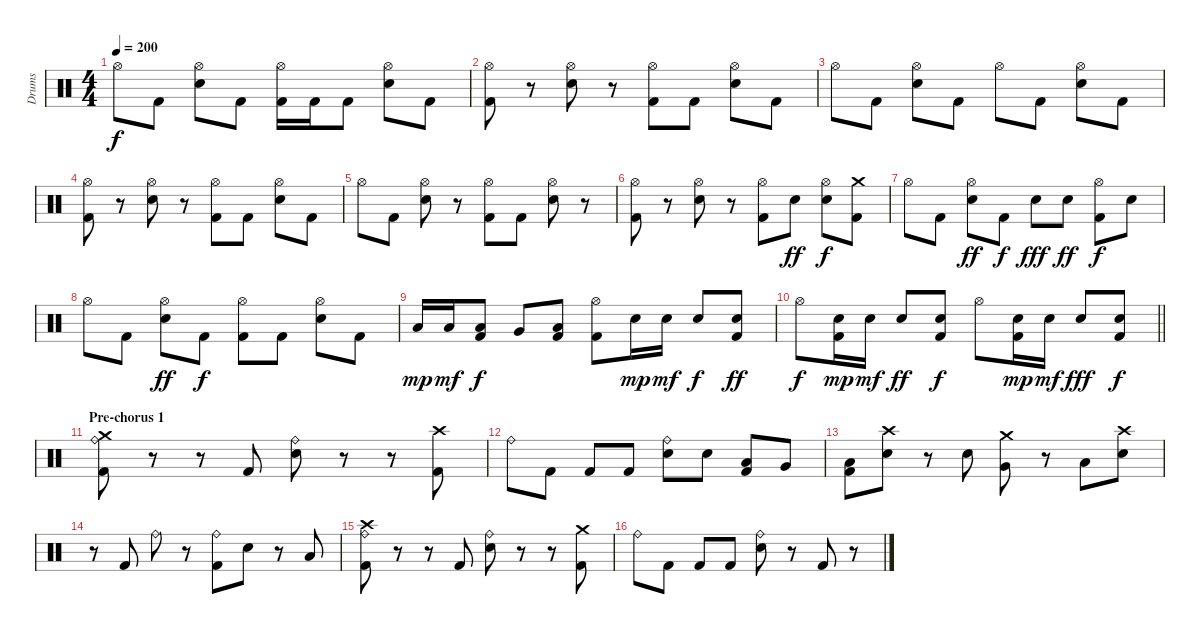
\track ("Drums" "Drums") {instrument percussion}
\staff {score}
\articulation defaults
\ts (4 4)
\tempo 200
\clef neutral
\ks c "Hi-Hat (open)".8{dy f} "Kick (hit) 2".8
("Electric Snare (hit)" "Hi-Hat (open)").8 "Kick (hit) 2".8 ("Kick (hit) 2" "Hi-Hat (open)").16 "Kick (hit) 2".16 "Kick (hit) 2".8 ("Electric Snare (hit)" "Hi-Hat (open)").8 "Kick (hit) 2".8 |
("Kick (hit) 2" "Hi-Hat (open)").8 r.8 ("Electric Snare (hit)" "Hi-Hat (open)").8 r.8 ("Kick (hit) 2" "Hi-Hat (open)").8 "Kick (hit) 2".8 ("Electric Snare (hit)" "Hi-Hat (open)").8 "Kick (hit) 2".8 |
"Hi-Hat (open)".8 "Kick (hit) 2".8 ("Electric Snare (hit)" "Hi-Hat (open)").8 "Kick (hit) 2".8 "Hi-Hat (open)".8 "Kick (hit) 2".8 ("Electric Snare (hit)" "Hi-Hat (open)").8 "Kick (hit) 2".8 |
("Kick (hit) 2" "Hi-Hat (open)").8 r.8 ("Electric Snare (hit)" "Hi-Hat (open)").8 r.8 ("Kick (hit) 2" "Hi-Hat (open)").8 "Kick (hit) 2".8 ("Electric Snare (hit)" "Hi-Hat (open)").8 "Kick (hit) 2".8 |
"Hi-Hat (open)".8 "Kick (hit) 2".8 ("Electric Snare (hit)" "Hi-Hat (open)").8 r.8 ("Kick (hit) 2" "Hi-Hat (open)").8 "Kick (hit) 2".8 ("Electric Snare (hit)" "Hi-Hat (open)").8 r.8 |
("Kick (hit) 2" "Hi-Hat (open)").8 r.8 ("Electric Snare (hit)" "Hi-Hat (open)").8 r.8 ("Kick (hit) 2" "Hi-Hat (open)").8 "Electric Snare (hit)".8{dy ff} ("Electric Snare (hit)" "Hi-Hat (open)").8{dy f} ("Kick (hit) 2" "Crash medium (hit)").8 |
"Hi-Hat (open)".8 "Kick (hit) 2".8 ("Electric Snare (hit)" "Hi-Hat (open)").8{dy ff} "Kick (hit) 2".8{dy f} "Electric Snare (hit)".8{dy fff} "Electric Snare (hit)".8{dy ff} ("Kick (hit) 2" "Hi-Hat (open)").8{dy f} "Electric Snare (hit)".8 |
"Hi-Hat (open)".8 "Kick (hit) 2".8 ("Electric Snare (hit)" "Hi-Hat (open)").8{dy ff} "Kick (hit) 2".8{dy f} ("Kick (hit) 2" "Hi-Hat (open)").8 "Kick (hit) 2".8 ("Electric Snare (hit)" "Hi-Hat (open)").8 "Kick (hit) 2".8 |
"Low Tom (hit)".16{dy mp} "Low Tom (hit)".16{dy mf} ("Kick (hit) 2" "Low Tom (hit)").8{dy f} "Very Low Tom (hit)".8 ("Kick (hit) 2" "Low Tom (hit)").8 ("Kick (hit) 2" "Hi-Hat (open)").8 "Electric Snare (hit)".16{dy mp} "Electric Snare (hit)".16{dy mf} "Electric Snare (hit)".8{dy f} ("Kick (hit) 2" "Electric Snare (hit)").8{dy ff} |
\barLineRight lightlight "Hi-Hat (open)".8{dy f}
("Kick (hit) 2" "Electric Snare (hit)").16{dy mp} "Electric Snare (hit)".16{dy mf} "Electric Snare (hit)".8{dy ff} ("Kick (hit) 2" "Electric Snare (hit)").8{dy f} "Hi-Hat (open)".8 ("Kick (hit) 2" "Electric Snare (hit)").16{dy mp} "Electric Snare (hit)".16{dy mf} "Electric Snare (hit)".8{dy fff} ("Kick (hit) 2" "Electric Snare (hit)").8{dy f} |
\section ("" "Pre-chorus 1")
("Kick (hit) 2" "Ride (bell)" "Crash medium (hit)").8 r.8 r.8 "Kick (hit) 2".8 ("Electric Snare (hit)" "Ride (bell)").8 r.8 r.8 ("Kick (hit) 2" "Crash high (hit)").8 |
"Ride (bell)".8 "Kick (hit) 2".8 "Kick (hit) 2".8 "Kick (hit) 2".8 ("Electric Snare (hit)" "Ride (bell)").8 "Electric Snare (hit)".8 ("Kick (hit) 2" "Low Tom (hit)").8 "Very Low Tom (hit)".8 |
("Kick (hit) 2" "Low Floor Tom (hit)").8 ("Electric Snare (hit)" "Crash high (hit)").8 r.8 "Electric Snare (hit)".8 ("Very Low Tom (hit)" "Crash medium (hit)").8 r.8 "Low Floor Tom (hit)".8 ("Electric Snare (hit)" "Crash high (hit)").8 |
r.8 "Kick (hit) 2".8 "Ride (bell)".8 r.8 ("Kick (hit) 2" "Ride (bell)").8 "Electric Snare (hit)".8 r.8 "Low Tom (hit)".8 |
("Kick (hit) 2" "Ride (bell)" "Crash high (hit)").8 r.8 r.8 "Kick (hit) 2".8 ("Electric Snare (hit)" "Ride (bell)").8 r.8 r.8 ("Kick (hit) 2" "Crash medium (hit)").8 |
"Ride (bell)".8 "Kick (hit) 2".8 "Kick (hit) 2".8 "Kick (hit) 2".8 ("Electric Snare (hit)" "Ride (bell)").8 r.8 "Kick (hit) 2".8 r.8
